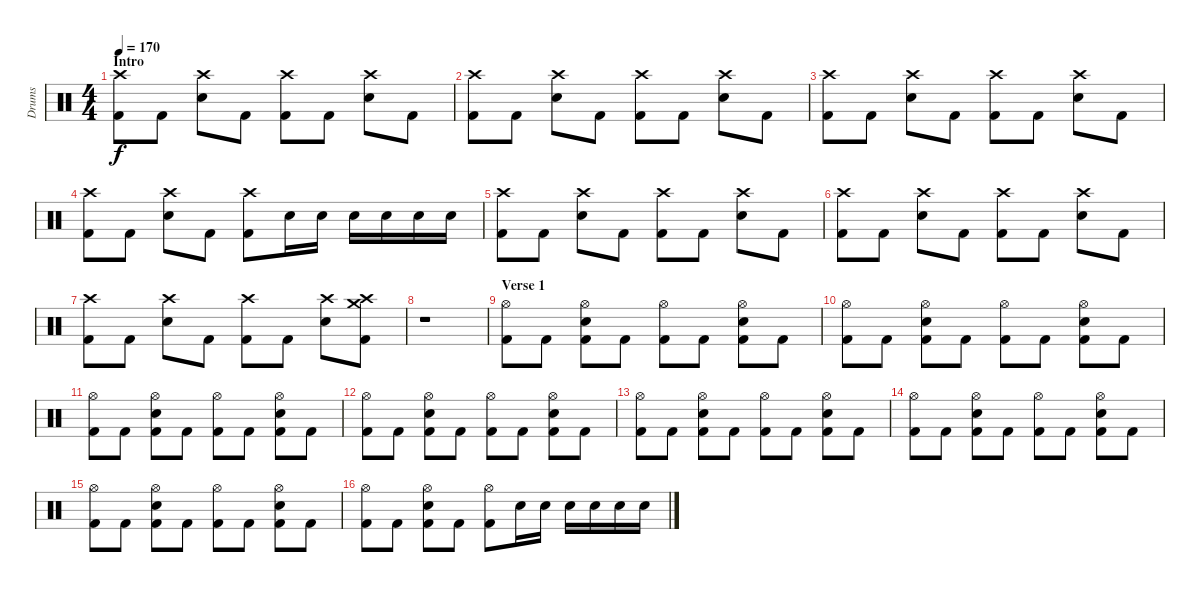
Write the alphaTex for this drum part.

\track ("Drums" "Drums") {instrument percussion}
\staff {score}
\articulation defaults
\ts (4 4)
\section ("" "Intro")
\tempo 170
\clef neutral
\ks c
("Crash high (hit)" "Kick (hit) 2").8{dy f} "Kick (hit) 2".8 ("Crash high (hit)" "Snare (hit) 2").8 "Kick (hit) 2".8 ("Crash high (hit)" "Kick (hit) 2").8 "Kick (hit) 2".8 ("Crash high (hit)" "Snare (hit) 2").8 "Kick (hit) 2".8 |
("Crash high (hit)" "Kick (hit) 2").8 "Kick (hit) 2".8 ("Crash high (hit)" "Snare (hit) 2").8 "Kick (hit) 2".8 ("Crash high (hit)" "Kick (hit) 2").8 "Kick (hit) 2".8 ("Crash high (hit)" "Snare (hit) 2").8 "Kick (hit) 2".8 |
("Crash high (hit)" "Kick (hit) 2").8 "Kick (hit) 2".8 ("Crash high (hit)" "Snare (hit) 2").8 "Kick (hit) 2".8 ("Crash high (hit)" "Kick (hit) 2").8 "Kick (hit) 2".8 ("Crash high (hit)" "Snare (hit) 2").8 "Kick (hit) 2".8 |
("Crash high (hit)" "Kick (hit) 2").8 "Kick (hit) 2".8 ("Crash high (hit)" "Snare (hit) 2").8 "Kick (hit) 2".8 ("Crash high (hit)" "Kick (hit) 2").8 "Snare (hit) 2".16 "Snare (hit) 2".16 "Snare (hit) 2".16 "Snare (hit) 2".16 "Snare (hit) 2".16 "Snare (hit) 2".16 |
("Crash high (hit)" "Kick (hit) 2").8 "Kick (hit) 2".8 ("Crash high (hit)" "Snare (hit) 2").8 "Kick (hit) 2".8 ("Crash high (hit)" "Kick (hit) 2").8 "Kick (hit) 2".8 ("Crash high (hit)" "Snare (hit) 2").8 "Kick (hit) 2".8 |
("Crash high (hit)" "Kick (hit) 2").8 "Kick (hit) 2".8 ("Crash high (hit)" "Snare (hit) 2").8 "Kick (hit) 2".8 ("Crash high (hit)" "Kick (hit) 2").8 "Kick (hit) 2".8 ("Crash high (hit)" "Snare (hit) 2").8 "Kick (hit) 2".8 |
("Crash high (hit)" "Kick (hit) 2").8 "Kick (hit) 2".8 ("Crash high (hit)" "Snare (hit) 2").8 "Kick (hit) 2".8 ("Crash high (hit)" "Kick (hit) 2").8 "Kick (hit) 2".8 ("Crash high (hit)" "Snare (hit) 2").8 ("Crash high (hit)" "Crash medium (hit)" "Kick (hit) 2").8 |
r.1 |
\section ("" "Verse 1")
("Hi-Hat (open)" "Kick (hit) 2").8 "Kick (hit) 2".8 ("Hi-Hat (open)" "Snare (hit) 2" "Kick (hit) 2").8 "Kick (hit) 2".8 ("Hi-Hat (open)" "Kick (hit) 2").8 "Kick (hit) 2".8 ("Hi-Hat (open)" "Snare (hit) 2" "Kick (hit) 2").8 "Kick (hit) 2".8 |
("Hi-Hat (open)" "Kick (hit) 2").8 "Kick (hit) 2".8 ("Hi-Hat (open)" "Snare (hit) 2" "Kick (hit) 2").8 "Kick (hit) 2".8 ("Hi-Hat (open)" "Kick (hit) 2").8 "Kick (hit) 2".8 ("Hi-Hat (open)" "Snare (hit) 2" "Kick (hit) 2").8 "Kick (hit) 2".8 |
("Hi-Hat (open)" "Kick (hit) 2").8 "Kick (hit) 2".8 ("Hi-Hat (open)" "Snare (hit) 2" "Kick (hit) 2").8 "Kick (hit) 2".8 ("Hi-Hat (open)" "Kick (hit) 2").8 "Kick (hit) 2".8 ("Hi-Hat (open)" "Snare (hit) 2" "Kick (hit) 2").8 "Kick (hit) 2".8 |
("Hi-Hat (open)" "Kick (hit) 2").8 "Kick (hit) 2".8 ("Hi-Hat (open)" "Snare (hit) 2" "Kick (hit) 2").8 "Kick (hit) 2".8 ("Hi-Hat (open)" "Kick (hit) 2").8 "Kick (hit) 2".8 ("Hi-Hat (open)" "Snare (hit) 2" "Kick (hit) 2").8 "Kick (hit) 2".8 |
("Hi-Hat (open)" "Kick (hit) 2").8 "Kick (hit) 2".8 ("Hi-Hat (open)" "Snare (hit) 2" "Kick (hit) 2").8 "Kick (hit) 2".8 ("Hi-Hat (open)" "Kick (hit) 2").8 "Kick (hit) 2".8 ("Hi-Hat (open)" "Snare (hit) 2" "Kick (hit) 2").8 "Kick (hit) 2".8 |
("Hi-Hat (open)" "Kick (hit) 2").8 "Kick (hit) 2".8 ("Hi-Hat (open)" "Snare (hit) 2" "Kick (hit) 2").8 "Kick (hit) 2".8 ("Hi-Hat (open)" "Kick (hit) 2").8 "Kick (hit) 2".8 ("Hi-Hat (open)" "Snare (hit) 2" "Kick (hit) 2").8 "Kick (hit) 2".8 |
("Hi-Hat (open)" "Kick (hit) 2").8 "Kick (hit) 2".8 ("Hi-Hat (open)" "Snare (hit) 2" "Kick (hit) 2").8 "Kick (hit) 2".8 ("Hi-Hat (open)" "Kick (hit) 2").8 "Kick (hit) 2".8 ("Hi-Hat (open)" "Snare (hit) 2" "Kick (hit) 2").8 "Kick (hit) 2".8 |
("Hi-Hat (open)" "Kick (hit) 2").8 "Kick (hit) 2".8 ("Hi-Hat (open)" "Snare (hit) 2" "Kick (hit) 2").8 "Kick (hit) 2".8 ("Hi-Hat (open)" "Kick (hit) 2").8 "Snare (hit) 2".16 "Snare (hit) 2".16 "Snare (hit) 2".16 "Snare (hit) 2".16 "Snare (hit) 2".16 "Snare (hit) 2".16
